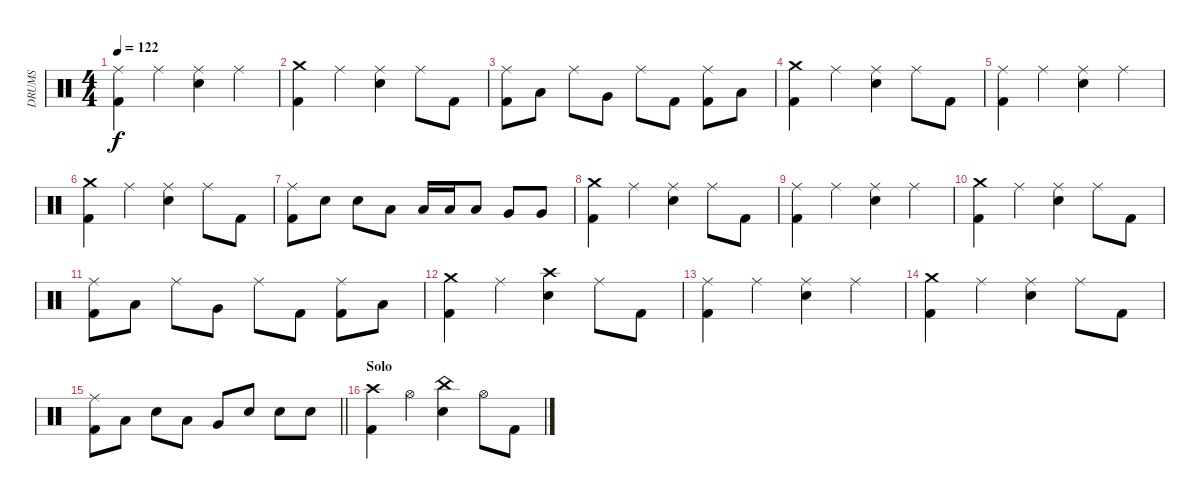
\track ("DRUMS" "DRUMS") {instrument percussion}
\staff {score}
\articulation defaults
\ts (4 4)
\tempo 122
\clef neutral
\ks c
("Ride (middle)" "Kick (hit) 2").4{dy f} "Ride (middle)".4 ("Ride (middle)" "Snare (hit) 2").4 "Ride (middle)".4 |
("Crash medium (hit)" "Kick (hit) 2").4 "Ride (middle)".4 ("Ride (middle)" "Snare (hit) 2").4 "Ride (middle)".8 "Kick (hit) 2".8 |
("Ride (middle)" "Kick (hit) 2").8 "Low Tom (hit)".8 "Ride (middle)".8 "Very Low Tom (hit)".8 "Ride (middle)".8 "Kick (hit) 2".8 ("Ride (middle)" "Kick (hit) 2").8 "Low Floor Tom (hit)".8 |
("Crash medium (hit)" "Kick (hit) 2").4 "Ride (middle)".4 ("Ride (middle)" "Snare (hit) 2").4 "Ride (middle)".8 "Kick (hit) 2".8 |
("Ride (middle)" "Kick (hit) 2").4 "Ride (middle)".4 ("Ride (middle)" "Snare (hit) 2").4 "Ride (middle)".4 |
("Crash medium (hit)" "Kick (hit) 2").4 "Ride (middle)".4 ("Ride (middle)" "Snare (hit) 2").4 "Ride (middle)".8 "Kick (hit) 2".8 |
("Ride (middle)" "Kick (hit) 2").8 "Snare (hit) 2".8 "Snare (hit) 2".8 "Low Tom (hit)".8 "Low Tom (hit)".16 "Low Tom (hit)".16 "Low Tom (hit)".8 "Very Low Tom (hit)".8 "Very Low Tom (hit)".8 |
("Crash medium (hit)" "Kick (hit) 2").4 "Ride (middle)".4 ("Ride (middle)" "Snare (hit) 2").4 "Ride (middle)".8 "Kick (hit) 2".8 |
("Ride (middle)" "Kick (hit) 2").4 "Ride (middle)".4 ("Ride (middle)" "Snare (hit) 2").4 "Ride (middle)".4 |
("Crash medium (hit)" "Kick (hit) 2").4 "Ride (middle)".4 ("Ride (middle)" "Snare (hit) 2").4 "Ride (middle)".8 "Kick (hit) 2".8 |
("Ride (middle)" "Kick (hit) 2").8 "Low Tom (hit)".8 "Ride (middle)".8 "Very Low Tom (hit)".8 "Ride (middle)".8 "Kick (hit) 2".8 ("Ride (middle)" "Kick (hit) 2").8 "Low Floor Tom (hit)".8 |
("Crash medium (hit)" "Kick (hit) 2").4 "Ride (middle)".4 ("Crash high (hit)" "Snare (hit) 2").4 "Ride (middle)".8 "Kick (hit) 2".8 |
("Ride (middle)" "Kick (hit) 2").4 "Ride (middle)".4 ("Ride (middle)" "Snare (hit) 2").4 "Ride (middle)".4 |
("Crash medium (hit)" "Kick (hit) 2").4 "Ride (middle)".4 ("Ride (middle)" "Snare (hit) 2").4 "Ride (middle)".8 "Kick (hit) 2".8 |
\barLineRight lightlight
("Ride (middle)" "Kick (hit) 2").8 "Low Tom (hit)".8 "Snare (hit) 2".8 "Low Tom (hit)".8 "Very Low Tom (hit)".8 "Snare (hit) 2".8 "Snare (hit) 2".8 "Snare (hit) 2".8 |
\section ("" "Solo")
("Crash high (hit)" "Kick (hit) 2").4 "Hi-Hat (open)".4 ("China (hit)" "Snare (hit) 2").4 "Hi-Hat (open)".8 "Kick (hit) 2".8
